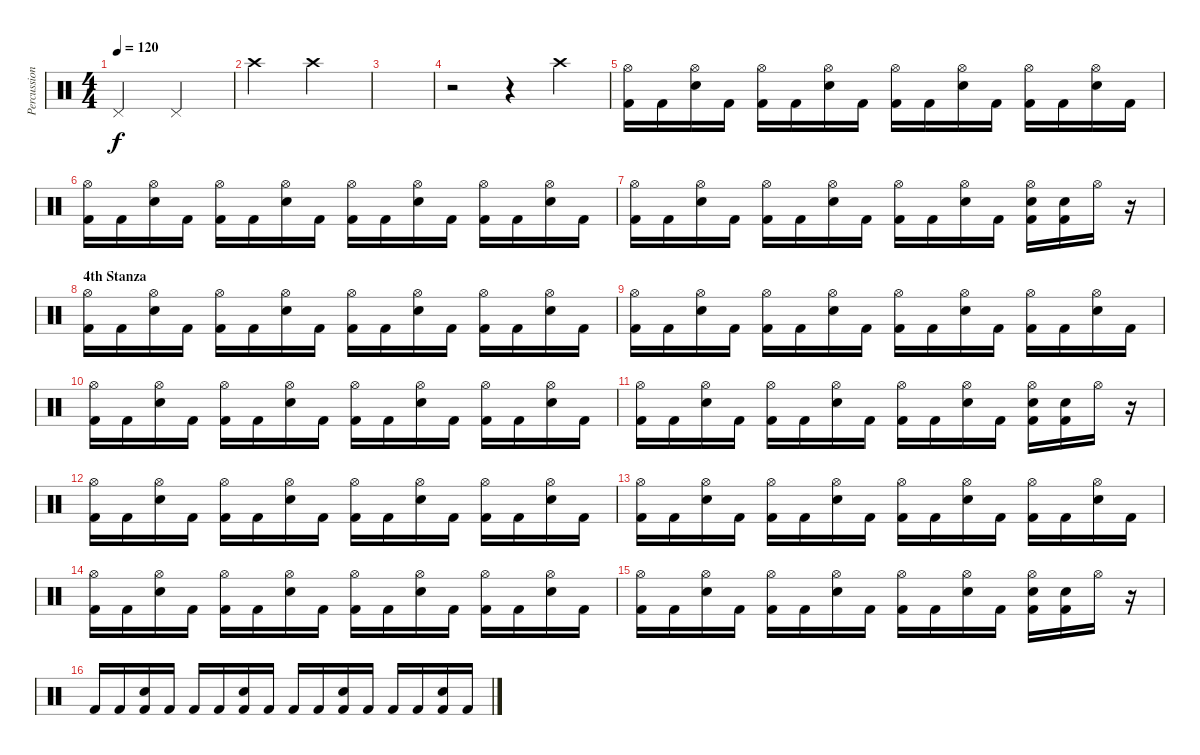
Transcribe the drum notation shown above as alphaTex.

\track ("Percussion" "Percussion") {instrument percussion}
\staff {score}
\articulation defaults
\ts (4 4)
\tempo 120
\clef neutral
\ks c "Pedal Hi-Hat (hit)".2{dy f} "Pedal Hi-Hat (hit)".2
|
"Crash high (hit)".2 "Crash high (hit)".2 |
|
r.2 r.4 "Crash high (hit)".4 |
("Hi-Hat (open)" "Kick (hit) 2").16 "Kick (hit) 2".16 ("Hi-Hat (open)" "Snare (hit) 2").16 "Kick (hit) 2".16 ("Hi-Hat (open)" "Kick (hit) 2").16 "Kick (hit) 2".16 ("Hi-Hat (open)" "Snare (hit) 2").16 "Kick (hit) 2".16 ("Hi-Hat (open)" "Kick (hit) 2").16 "Kick (hit) 2".16 ("Hi-Hat (open)" "Snare (hit) 2").16 "Kick (hit) 2".16 ("Hi-Hat (open)" "Kick (hit) 2").16 "Kick (hit) 2".16 ("Hi-Hat (open)" "Snare (hit) 2").16 "Kick (hit) 2".16 |
("Hi-Hat (open)" "Kick (hit) 2").16 "Kick (hit) 2".16 ("Hi-Hat (open)" "Snare (hit) 2").16 "Kick (hit) 2".16 ("Hi-Hat (open)" "Kick (hit) 2").16 "Kick (hit) 2".16 ("Hi-Hat (open)" "Snare (hit) 2").16 "Kick (hit) 2".16 ("Hi-Hat (open)" "Kick (hit) 2").16 "Kick (hit) 2".16 ("Hi-Hat (open)" "Snare (hit) 2").16 "Kick (hit) 2".16 ("Hi-Hat (open)" "Kick (hit) 2").16 "Kick (hit) 2".16 ("Hi-Hat (open)" "Snare (hit) 2").16 "Kick (hit) 2".16 |
("Hi-Hat (open)" "Kick (hit) 2").16 "Kick (hit) 2".16 ("Hi-Hat (open)" "Snare (hit) 2").16 "Kick (hit) 2".16 ("Hi-Hat (open)" "Kick (hit) 2").16 "Kick (hit) 2".16 ("Hi-Hat (open)" "Snare (hit) 2").16 "Kick (hit) 2".16 ("Hi-Hat (open)" "Kick (hit) 2").16 "Kick (hit) 2".16 ("Hi-Hat (open)" "Snare (hit) 2").16 "Kick (hit) 2".16 ("Hi-Hat (open)" "Snare (hit) 2" "Kick (hit) 2").16 ("Snare (hit) 2" "Kick (hit) 2").16 "Hi-Hat (open)".16 r.16 |
\section ("" "4th Stanza")
("Hi-Hat (open)" "Kick (hit) 2").16 "Kick (hit) 2".16 ("Hi-Hat (open)" "Snare (hit) 2").16 "Kick (hit) 2".16 ("Hi-Hat (open)" "Kick (hit) 2").16 "Kick (hit) 2".16 ("Hi-Hat (open)" "Snare (hit) 2").16 "Kick (hit) 2".16 ("Hi-Hat (open)" "Kick (hit) 2").16 "Kick (hit) 2".16 ("Hi-Hat (open)" "Snare (hit) 2").16 "Kick (hit) 2".16 ("Hi-Hat (open)" "Kick (hit) 2").16 "Kick (hit) 2".16 ("Hi-Hat (open)" "Snare (hit) 2").16 "Kick (hit) 2".16 |
("Hi-Hat (open)" "Kick (hit) 2").16 "Kick (hit) 2".16 ("Hi-Hat (open)" "Snare (hit) 2").16 "Kick (hit) 2".16 ("Hi-Hat (open)" "Kick (hit) 2").16 "Kick (hit) 2".16 ("Hi-Hat (open)" "Snare (hit) 2").16 "Kick (hit) 2".16 ("Hi-Hat (open)" "Kick (hit) 2").16 "Kick (hit) 2".16 ("Hi-Hat (open)" "Snare (hit) 2").16 "Kick (hit) 2".16 ("Hi-Hat (open)" "Kick (hit) 2").16 "Kick (hit) 2".16 ("Hi-Hat (open)" "Snare (hit) 2").16 "Kick (hit) 2".16 |
("Hi-Hat (open)" "Kick (hit) 2").16 "Kick (hit) 2".16 ("Hi-Hat (open)" "Snare (hit) 2").16 "Kick (hit) 2".16 ("Hi-Hat (open)" "Kick (hit) 2").16 "Kick (hit) 2".16 ("Hi-Hat (open)" "Snare (hit) 2").16 "Kick (hit) 2".16 ("Hi-Hat (open)" "Kick (hit) 2").16 "Kick (hit) 2".16 ("Hi-Hat (open)" "Snare (hit) 2").16 "Kick (hit) 2".16 ("Hi-Hat (open)" "Kick (hit) 2").16 "Kick (hit) 2".16 ("Hi-Hat (open)" "Snare (hit) 2").16 "Kick (hit) 2".16 |
("Hi-Hat (open)" "Kick (hit) 2").16 "Kick (hit) 2".16 ("Hi-Hat (open)" "Snare (hit) 2").16 "Kick (hit) 2".16 ("Hi-Hat (open)" "Kick (hit) 2").16 "Kick (hit) 2".16 ("Hi-Hat (open)" "Snare (hit) 2").16 "Kick (hit) 2".16 ("Hi-Hat (open)" "Kick (hit) 2").16 "Kick (hit) 2".16 ("Hi-Hat (open)" "Snare (hit) 2").16 "Kick (hit) 2".16 ("Hi-Hat (open)" "Snare (hit) 2" "Kick (hit) 2").16 ("Snare (hit) 2" "Kick (hit) 2").16 "Hi-Hat (open)".16 r.16 |
("Hi-Hat (open)" "Kick (hit) 2").16 "Kick (hit) 2".16 ("Hi-Hat (open)" "Snare (hit) 2").16 "Kick (hit) 2".16 ("Hi-Hat (open)" "Kick (hit) 2").16 "Kick (hit) 2".16 ("Hi-Hat (open)" "Snare (hit) 2").16 "Kick (hit) 2".16 ("Hi-Hat (open)" "Kick (hit) 2").16 "Kick (hit) 2".16 ("Hi-Hat (open)" "Snare (hit) 2").16 "Kick (hit) 2".16 ("Hi-Hat (open)" "Kick (hit) 2").16 "Kick (hit) 2".16 ("Hi-Hat (open)" "Snare (hit) 2").16 "Kick (hit) 2".16 |
("Hi-Hat (open)" "Kick (hit) 2").16 "Kick (hit) 2".16 ("Hi-Hat (open)" "Snare (hit) 2").16 "Kick (hit) 2".16 ("Hi-Hat (open)" "Kick (hit) 2").16 "Kick (hit) 2".16 ("Hi-Hat (open)" "Snare (hit) 2").16 "Kick (hit) 2".16 ("Hi-Hat (open)" "Kick (hit) 2").16 "Kick (hit) 2".16 ("Hi-Hat (open)" "Snare (hit) 2").16 "Kick (hit) 2".16 ("Hi-Hat (open)" "Kick (hit) 2").16 "Kick (hit) 2".16 ("Hi-Hat (open)" "Snare (hit) 2").16 "Kick (hit) 2".16 |
("Hi-Hat (open)" "Kick (hit) 2").16 "Kick (hit) 2".16 ("Hi-Hat (open)" "Snare (hit) 2").16 "Kick (hit) 2".16 ("Hi-Hat (open)" "Kick (hit) 2").16 "Kick (hit) 2".16 ("Hi-Hat (open)" "Snare (hit) 2").16 "Kick (hit) 2".16 ("Hi-Hat (open)" "Kick (hit) 2").16 "Kick (hit) 2".16 ("Hi-Hat (open)" "Snare (hit) 2").16 "Kick (hit) 2".16 ("Hi-Hat (open)" "Kick (hit) 2").16 "Kick (hit) 2".16 ("Hi-Hat (open)" "Snare (hit) 2").16 "Kick (hit) 2".16 |
("Hi-Hat (open)" "Kick (hit) 2").16 "Kick (hit) 2".16 ("Hi-Hat (open)" "Snare (hit) 2").16 "Kick (hit) 2".16 ("Hi-Hat (open)" "Kick (hit) 2").16 "Kick (hit) 2".16 ("Hi-Hat (open)" "Snare (hit) 2").16 "Kick (hit) 2".16 ("Hi-Hat (open)" "Kick (hit) 2").16 "Kick (hit) 2".16 ("Hi-Hat (open)" "Snare (hit) 2").16 "Kick (hit) 2".16 ("Hi-Hat (open)" "Snare (hit) 2" "Kick (hit) 2").16 ("Snare (hit) 2" "Kick (hit) 2").16 "Hi-Hat (open)".16 r.16 |
"Kick (hit) 2".16 "Kick (hit) 2".16 ("Snare (hit) 2" "Kick (hit) 2").16 "Kick (hit) 2".16 "Kick (hit) 2".16 "Kick (hit) 2".16 ("Snare (hit) 2" "Kick (hit) 2").16 "Kick (hit) 2".16 "Kick (hit) 2".16 "Kick (hit) 2".16 ("Snare (hit) 2" "Kick (hit) 2").16 "Kick (hit) 2".16 "Kick (hit) 2".16 "Kick (hit) 2".16 ("Snare (hit) 2" "Kick (hit) 2").16 "Kick (hit) 2".16
